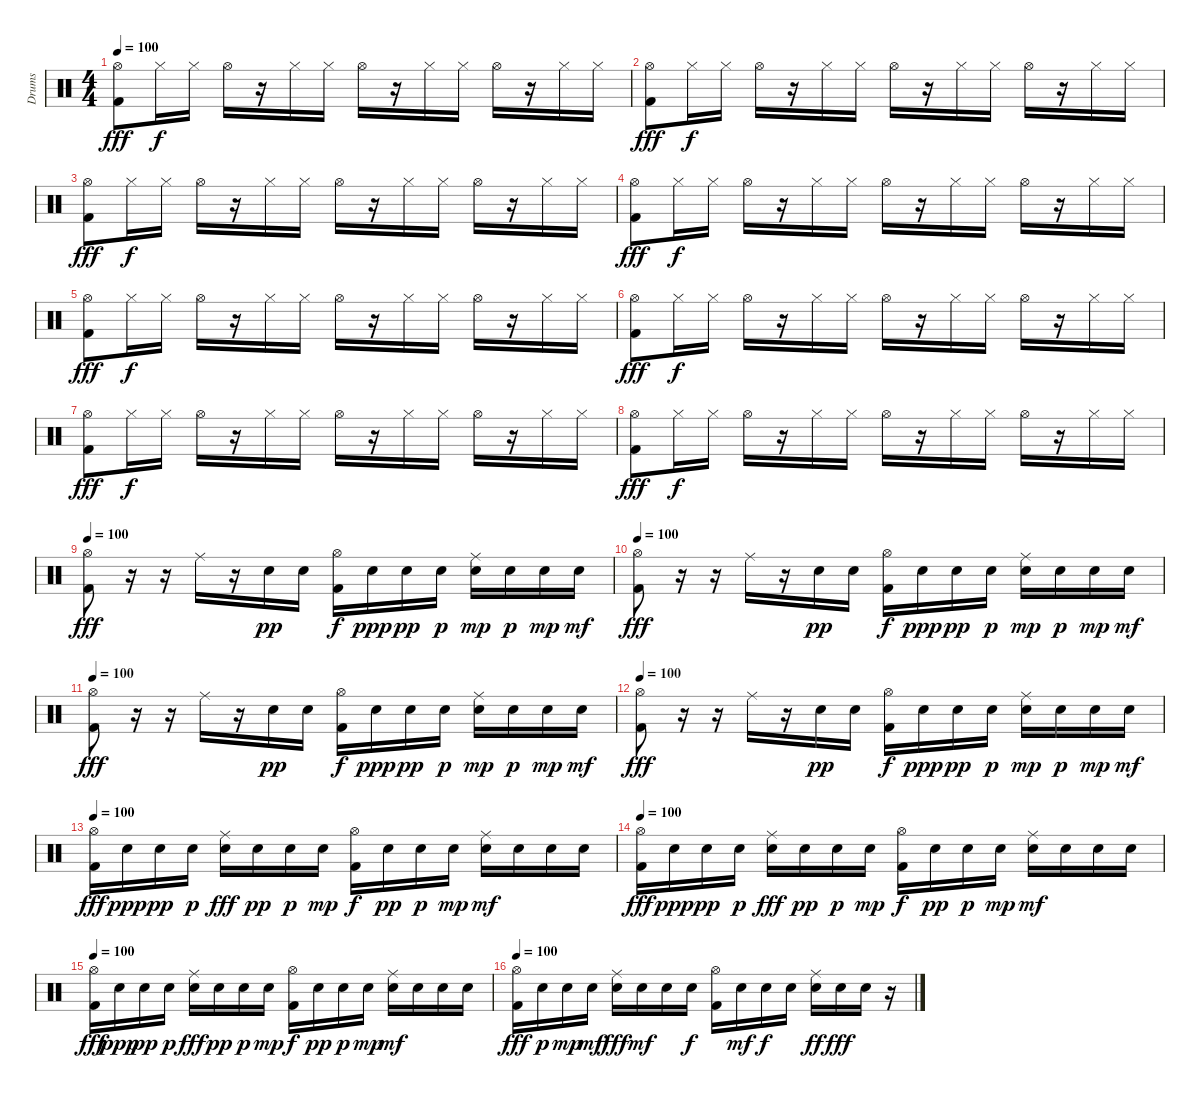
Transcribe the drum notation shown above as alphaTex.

\track ("Drums" "Drums") {instrument percussion}
\staff {score}
\articulation defaults
\ts (4 4)
\tempo 100
\clef neutral
\ks c
("Hi-Hat (open)" "Kick (hit) 2").8{dy fff} "Hi-Hat (closed)".16{dy f} "Hi-Hat (closed)".16 "Hi-Hat (open)".16 r.16 "Hi-Hat (closed)".16 "Hi-Hat (closed)".16 "Hi-Hat (open)".16 r.16 "Hi-Hat (closed)".16 "Hi-Hat (closed)".16 "Hi-Hat (open)".16 r.16 "Hi-Hat (closed)".16 "Hi-Hat (closed)".16 |
("Hi-Hat (open)" "Kick (hit) 2").8{dy fff} "Hi-Hat (closed)".16{dy f} "Hi-Hat (closed)".16 "Hi-Hat (open)".16 r.16 "Hi-Hat (closed)".16 "Hi-Hat (closed)".16 "Hi-Hat (open)".16 r.16 "Hi-Hat (closed)".16 "Hi-Hat (closed)".16 "Hi-Hat (open)".16 r.16 "Hi-Hat (closed)".16 "Hi-Hat (closed)".16 |
("Hi-Hat (open)" "Kick (hit) 2").8{dy fff} "Hi-Hat (closed)".16{dy f} "Hi-Hat (closed)".16 "Hi-Hat (open)".16 r.16 "Hi-Hat (closed)".16 "Hi-Hat (closed)".16 "Hi-Hat (open)".16 r.16 "Hi-Hat (closed)".16 "Hi-Hat (closed)".16 "Hi-Hat (open)".16 r.16 "Hi-Hat (closed)".16 "Hi-Hat (closed)".16 |
("Hi-Hat (open)" "Kick (hit) 2").8{dy fff} "Hi-Hat (closed)".16{dy f} "Hi-Hat (closed)".16 "Hi-Hat (open)".16 r.16 "Hi-Hat (closed)".16 "Hi-Hat (closed)".16 "Hi-Hat (open)".16 r.16 "Hi-Hat (closed)".16 "Hi-Hat (closed)".16 "Hi-Hat (open)".16 r.16 "Hi-Hat (closed)".16 "Hi-Hat (closed)".16 |
("Hi-Hat (open)" "Kick (hit) 2").8{dy fff} "Hi-Hat (closed)".16{dy f} "Hi-Hat (closed)".16 "Hi-Hat (open)".16 r.16 "Hi-Hat (closed)".16 "Hi-Hat (closed)".16 "Hi-Hat (open)".16 r.16 "Hi-Hat (closed)".16 "Hi-Hat (closed)".16 "Hi-Hat (open)".16 r.16 "Hi-Hat (closed)".16 "Hi-Hat (closed)".16 |
("Hi-Hat (open)" "Kick (hit) 2").8{dy fff} "Hi-Hat (closed)".16{dy f} "Hi-Hat (closed)".16 "Hi-Hat (open)".16 r.16 "Hi-Hat (closed)".16 "Hi-Hat (closed)".16 "Hi-Hat (open)".16 r.16 "Hi-Hat (closed)".16 "Hi-Hat (closed)".16 "Hi-Hat (open)".16 r.16 "Hi-Hat (closed)".16 "Hi-Hat (closed)".16 |
("Hi-Hat (open)" "Kick (hit) 2").8{dy fff} "Hi-Hat (closed)".16{dy f} "Hi-Hat (closed)".16 "Hi-Hat (open)".16 r.16 "Hi-Hat (closed)".16 "Hi-Hat (closed)".16 "Hi-Hat (open)".16 r.16 "Hi-Hat (closed)".16 "Hi-Hat (closed)".16 "Hi-Hat (open)".16 r.16 "Hi-Hat (closed)".16 "Hi-Hat (closed)".16 |
("Hi-Hat (open)" "Kick (hit) 2").8{dy fff} "Hi-Hat (closed)".16{dy f} "Hi-Hat (closed)".16 "Hi-Hat (open)".16 r.16 "Hi-Hat (closed)".16 "Hi-Hat (closed)".16 "Hi-Hat (open)".16 r.16 "Hi-Hat (closed)".16 "Hi-Hat (closed)".16 "Hi-Hat (open)".16 r.16 "Hi-Hat (closed)".16 "Hi-Hat (closed)".16 |
\tempo 100
("Hi-Hat (open)" "Kick (hit) 2").8{dy fff} r.16 r.16 "Ride (middle)".16 r.16 "Electric Snare (hit)".16{dy pp} "Electric Snare (hit)".16 ("Kick (hit) 2" "Hi-Hat (open)").16{dy f} "Electric Snare (hit)".16{dy ppp} "Electric Snare (hit)".16{dy pp} "Electric Snare (hit)".16{dy p} ("Ride (middle)" "Electric Snare (hit)").16{dy mp} "Electric Snare (hit)".16{dy p} "Electric Snare (hit)".16{dy mp} "Electric Snare (hit)".16{dy mf} |
\tempo 100
("Hi-Hat (open)" "Kick (hit) 2").8{dy fff} r.16 r.16 "Ride (middle)".16 r.16 "Electric Snare (hit)".16{dy pp} "Electric Snare (hit)".16 ("Kick (hit) 2" "Hi-Hat (open)").16{dy f} "Electric Snare (hit)".16{dy ppp} "Electric Snare (hit)".16{dy pp} "Electric Snare (hit)".16{dy p} ("Ride (middle)" "Electric Snare (hit)").16{dy mp} "Electric Snare (hit)".16{dy p} "Electric Snare (hit)".16{dy mp} "Electric Snare (hit)".16{dy mf} |
\tempo 100
("Hi-Hat (open)" "Kick (hit) 2").8{dy fff} r.16 r.16 "Ride (middle)".16 r.16 "Electric Snare (hit)".16{dy pp} "Electric Snare (hit)".16 ("Kick (hit) 2" "Hi-Hat (open)").16{dy f} "Electric Snare (hit)".16{dy ppp} "Electric Snare (hit)".16{dy pp} "Electric Snare (hit)".16{dy p} ("Ride (middle)" "Electric Snare (hit)").16{dy mp} "Electric Snare (hit)".16{dy p} "Electric Snare (hit)".16{dy mp} "Electric Snare (hit)".16{dy mf} |
\tempo 100
("Hi-Hat (open)" "Kick (hit) 2").8{dy fff} r.16 r.16 "Ride (middle)".16 r.16 "Electric Snare (hit)".16{dy pp} "Electric Snare (hit)".16 ("Kick (hit) 2" "Hi-Hat (open)").16{dy f} "Electric Snare (hit)".16{dy ppp} "Electric Snare (hit)".16{dy pp} "Electric Snare (hit)".16{dy p} ("Ride (middle)" "Electric Snare (hit)").16{dy mp} "Electric Snare (hit)".16{dy p} "Electric Snare (hit)".16{dy mp} "Electric Snare (hit)".16{dy mf} |
\tempo 100
("Hi-Hat (open)" "Kick (hit) 2").16{dy fff} "Electric Snare (hit)".16{dy ppp} "Electric Snare (hit)".16{dy pp} "Electric Snare (hit)".16{dy p} ("Electric Snare (hit)" "Ride (middle)").16{dy fff} "Electric Snare (hit)".16{dy pp} "Electric Snare (hit)".16{dy p} "Electric Snare (hit)".16{dy mp} ("Kick (hit) 2" "Hi-Hat (open)").16{dy f} "Electric Snare (hit)".16{dy pp} "Electric Snare (hit)".16{dy p} "Electric Snare (hit)".16{dy mp} ("Ride (middle)" "Electric Snare (hit)").16{dy mf} "Electric Snare (hit)".16 "Electric Snare (hit)".16 "Electric Snare (hit)".16 |
\tempo 100
("Hi-Hat (open)" "Kick (hit) 2").16{dy fff} "Electric Snare (hit)".16{dy ppp} "Electric Snare (hit)".16{dy pp} "Electric Snare (hit)".16{dy p} ("Electric Snare (hit)" "Ride (middle)").16{dy fff} "Electric Snare (hit)".16{dy pp} "Electric Snare (hit)".16{dy p} "Electric Snare (hit)".16{dy mp} ("Kick (hit) 2" "Hi-Hat (open)").16{dy f} "Electric Snare (hit)".16{dy pp} "Electric Snare (hit)".16{dy p} "Electric Snare (hit)".16{dy mp} ("Ride (middle)" "Electric Snare (hit)").16{dy mf} "Electric Snare (hit)".16 "Electric Snare (hit)".16 "Electric Snare (hit)".16 |
\tempo 100
("Hi-Hat (open)" "Kick (hit) 2").16{dy fff} "Electric Snare (hit)".16{dy ppp} "Electric Snare (hit)".16{dy pp} "Electric Snare (hit)".16{dy p} ("Electric Snare (hit)" "Ride (middle)").16{dy fff} "Electric Snare (hit)".16{dy pp} "Electric Snare (hit)".16{dy p} "Electric Snare (hit)".16{dy mp} ("Kick (hit) 2" "Hi-Hat (open)").16{dy f} "Electric Snare (hit)".16{dy pp} "Electric Snare (hit)".16{dy p} "Electric Snare (hit)".16{dy mp} ("Ride (middle)" "Electric Snare (hit)").16{dy mf} "Electric Snare (hit)".16 "Electric Snare (hit)".16 "Electric Snare (hit)".16 |
\tempo 100
("Hi-Hat (open)" "Kick (hit) 2").16{dy fff volume 16} "Electric Snare (hit)".16{dy p} "Electric Snare (hit)".16{dy mp} "Electric Snare (hit)".16{dy mf} ("Electric Snare (hit)" "Ride (middle)").16{dy fff} "Electric Snare (hit)".16{dy mf} "Electric Snare (hit)".16 "Electric Snare (hit)".16{dy f} ("Kick (hit) 2" "Hi-Hat (open)").16 "Electric Snare (hit)".16{dy mf} "Electric Snare (hit)".16{dy f} "Electric Snare (hit)".16 ("Ride (middle)" "Electric Snare (hit)").16{dy ff} "Electric Snare (hit)".16{dy fff} "Electric Snare (hit)".16 r.16
